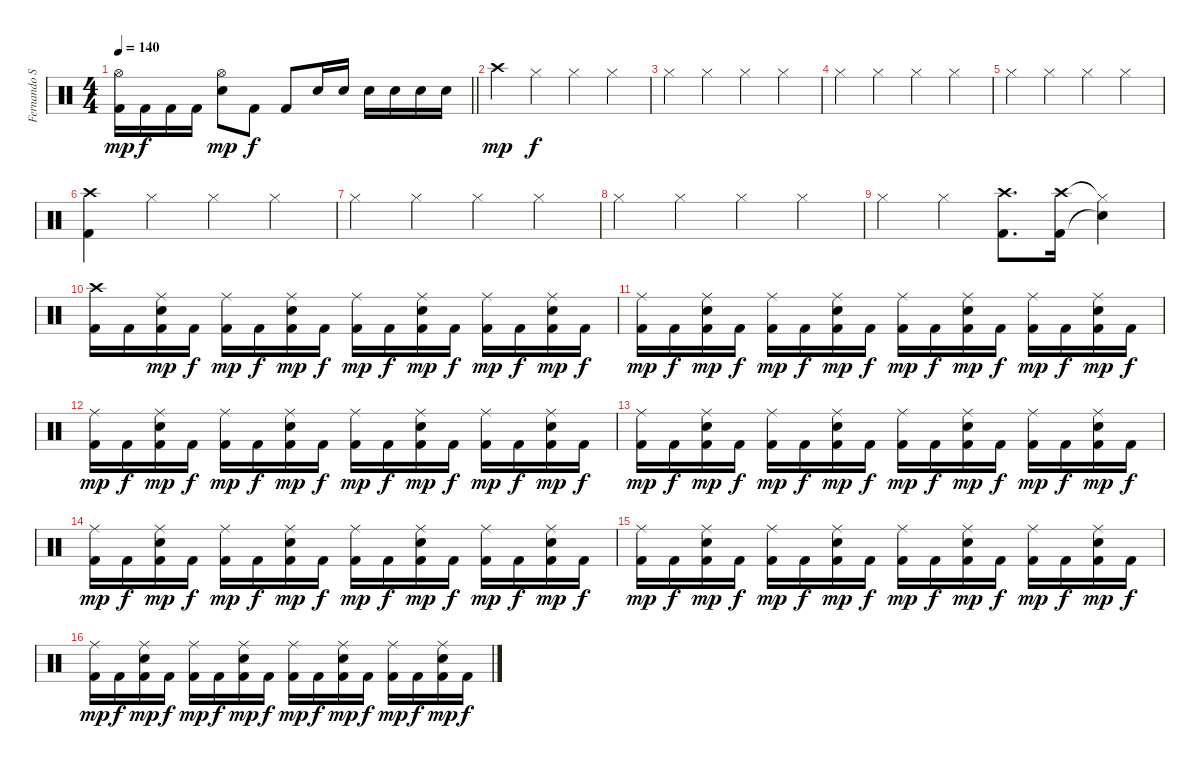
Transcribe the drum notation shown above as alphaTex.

\track ("Fernando Scarcella" "Fernando S") {instrument percussion}
\staff {score}
\articulation defaults
\ts (4 4)
\tempo 140
\clef neutral
\barLineRight lightlight
\ks c
("Hi-Hat (open)" "Kick (hit) 2").16{dy mp} "Kick (hit) 2".16{dy f} "Kick (hit) 2".16 "Kick (hit) 2".16 ("Hi-Hat (open)" "Snare (hit) 2").8{dy mp} "Kick (hit) 2".8{dy f} "Kick (hit) 2".8 "Snare (hit) 2".16 "Snare (hit) 2".16 "Snare (hit) 2".16 "Snare (hit) 2".16 "Snare (hit) 2".16 "Snare (hit) 2".16 |
"Crash high (hit)".4{dy mp} "Hi-Hat (closed)".4{dy f} "Hi-Hat (closed)".4 "Hi-Hat (closed)".4 |
"Hi-Hat (closed)".4 "Hi-Hat (closed)".4 "Hi-Hat (closed)".4 "Hi-Hat (closed)".4 |
"Hi-Hat (closed)".4 "Hi-Hat (closed)".4 "Hi-Hat (closed)".4 "Hi-Hat (closed)".4 |
"Hi-Hat (closed)".4 "Hi-Hat (closed)".4 "Hi-Hat (closed)".4 "Hi-Hat (closed)".4 |
("Crash high (hit)" "Kick (hit) 2").4 "Hi-Hat (closed)".4 "Hi-Hat (closed)".4 "Hi-Hat (closed)".4 |
"Hi-Hat (closed)".4 "Hi-Hat (closed)".4 "Hi-Hat (closed)".4 "Hi-Hat (closed)".4 |
"Hi-Hat (closed)".4 "Hi-Hat (closed)".4 "Hi-Hat (closed)".4 "Hi-Hat (closed)".4 |
"Hi-Hat (closed)".4 "Hi-Hat (closed)".4 ("Crash high (hit)" "Kick (hit) 2").8{d} ("Crash high (hit)" "Kick (hit) 2").16 ("Hi-Hat (closed)"{t} "Snare (hit)"{t}).4 |
("Crash high (hit)" "Kick (hit) 2").16 "Kick (hit) 2".16 ("Ride (middle)" "Snare (hit) 2" "Kick (hit) 2").16{dy mp} "Kick (hit) 2".16{dy f} ("Ride (middle)" "Kick (hit) 2").16{dy mp} "Kick (hit) 2".16{dy f} ("Ride (middle)" "Snare (hit) 2" "Kick (hit) 2").16{dy mp} "Kick (hit) 2".16{dy f} ("Ride (middle)" "Kick (hit) 2").16{dy mp} "Kick (hit) 2".16{dy f} ("Ride (middle)" "Snare (hit) 2" "Kick (hit) 2").16{dy mp} "Kick (hit) 2".16{dy f} ("Ride (middle)" "Kick (hit) 2").16{dy mp} "Kick (hit) 2".16{dy f} ("Ride (middle)" "Snare (hit) 2" "Kick (hit) 2").16{dy mp} "Kick (hit) 2".16{dy f} |
("Ride (middle)" "Kick (hit) 2").16{dy mp} "Kick (hit) 2".16{dy f} ("Ride (middle)" "Snare (hit) 2" "Kick (hit) 2").16{dy mp} "Kick (hit) 2".16{dy f} ("Ride (middle)" "Kick (hit) 2").16{dy mp} "Kick (hit) 2".16{dy f} ("Ride (middle)" "Snare (hit) 2" "Kick (hit) 2").16{dy mp} "Kick (hit) 2".16{dy f} ("Ride (middle)" "Kick (hit) 2").16{dy mp} "Kick (hit) 2".16{dy f} ("Ride (middle)" "Snare (hit) 2" "Kick (hit) 2").16{dy mp} "Kick (hit) 2".16{dy f} ("Ride (middle)" "Kick (hit) 2").16{dy mp} "Kick (hit) 2".16{dy f} ("Ride (middle)" "Snare (hit) 2" "Kick (hit) 2").16{dy mp} "Kick (hit) 2".16{dy f} |
("Ride (middle)" "Kick (hit) 2").16{dy mp} "Kick (hit) 2".16{dy f} ("Ride (middle)" "Snare (hit) 2" "Kick (hit) 2").16{dy mp} "Kick (hit) 2".16{dy f} ("Ride (middle)" "Kick (hit) 2").16{dy mp} "Kick (hit) 2".16{dy f} ("Ride (middle)" "Snare (hit) 2" "Kick (hit) 2").16{dy mp} "Kick (hit) 2".16{dy f} ("Ride (middle)" "Kick (hit) 2").16{dy mp} "Kick (hit) 2".16{dy f} ("Ride (middle)" "Snare (hit) 2" "Kick (hit) 2").16{dy mp} "Kick (hit) 2".16{dy f} ("Ride (middle)" "Kick (hit) 2").16{dy mp} "Kick (hit) 2".16{dy f} ("Ride (middle)" "Snare (hit) 2" "Kick (hit) 2").16{dy mp} "Kick (hit) 2".16{dy f} |
("Ride (middle)" "Kick (hit) 2").16{dy mp} "Kick (hit) 2".16{dy f} ("Ride (middle)" "Snare (hit) 2" "Kick (hit) 2").16{dy mp} "Kick (hit) 2".16{dy f} ("Ride (middle)" "Kick (hit) 2").16{dy mp} "Kick (hit) 2".16{dy f} ("Ride (middle)" "Snare (hit) 2" "Kick (hit) 2").16{dy mp} "Kick (hit) 2".16{dy f} ("Ride (middle)" "Kick (hit) 2").16{dy mp} "Kick (hit) 2".16{dy f} ("Ride (middle)" "Snare (hit) 2" "Kick (hit) 2").16{dy mp} "Kick (hit) 2".16{dy f} ("Ride (middle)" "Kick (hit) 2").16{dy mp} "Kick (hit) 2".16{dy f} ("Ride (middle)" "Snare (hit) 2" "Kick (hit) 2").16{dy mp} "Kick (hit) 2".16{dy f} |
("Ride (middle)" "Kick (hit) 2").16{dy mp} "Kick (hit) 2".16{dy f} ("Ride (middle)" "Snare (hit) 2" "Kick (hit) 2").16{dy mp} "Kick (hit) 2".16{dy f} ("Ride (middle)" "Kick (hit) 2").16{dy mp} "Kick (hit) 2".16{dy f} ("Ride (middle)" "Snare (hit) 2" "Kick (hit) 2").16{dy mp} "Kick (hit) 2".16{dy f} ("Ride (middle)" "Kick (hit) 2").16{dy mp} "Kick (hit) 2".16{dy f} ("Ride (middle)" "Snare (hit) 2" "Kick (hit) 2").16{dy mp} "Kick (hit) 2".16{dy f} ("Ride (middle)" "Kick (hit) 2").16{dy mp} "Kick (hit) 2".16{dy f} ("Ride (middle)" "Snare (hit) 2" "Kick (hit) 2").16{dy mp} "Kick (hit) 2".16{dy f} |
("Ride (middle)" "Kick (hit) 2").16{dy mp} "Kick (hit) 2".16{dy f} ("Ride (middle)" "Snare (hit) 2" "Kick (hit) 2").16{dy mp} "Kick (hit) 2".16{dy f} ("Ride (middle)" "Kick (hit) 2").16{dy mp} "Kick (hit) 2".16{dy f} ("Ride (middle)" "Snare (hit) 2" "Kick (hit) 2").16{dy mp} "Kick (hit) 2".16{dy f} ("Ride (middle)" "Kick (hit) 2").16{dy mp} "Kick (hit) 2".16{dy f} ("Ride (middle)" "Snare (hit) 2" "Kick (hit) 2").16{dy mp} "Kick (hit) 2".16{dy f} ("Ride (middle)" "Kick (hit) 2").16{dy mp} "Kick (hit) 2".16{dy f} ("Ride (middle)" "Snare (hit) 2" "Kick (hit) 2").16{dy mp} "Kick (hit) 2".16{dy f} |
("Ride (middle)" "Kick (hit) 2").16{dy mp} "Kick (hit) 2".16{dy f} ("Ride (middle)" "Snare (hit) 2" "Kick (hit) 2").16{dy mp} "Kick (hit) 2".16{dy f} ("Ride (middle)" "Kick (hit) 2").16{dy mp} "Kick (hit) 2".16{dy f} ("Ride (middle)" "Snare (hit) 2" "Kick (hit) 2").16{dy mp} "Kick (hit) 2".16{dy f} ("Ride (middle)" "Kick (hit) 2").16{dy mp} "Kick (hit) 2".16{dy f} ("Ride (middle)" "Snare (hit) 2" "Kick (hit) 2").16{dy mp} "Kick (hit) 2".16{dy f} ("Ride (middle)" "Kick (hit) 2").16{dy mp} "Kick (hit) 2".16{dy f} ("Ride (middle)" "Snare (hit) 2" "Kick (hit) 2").16{dy mp} "Kick (hit) 2".16{dy f}
